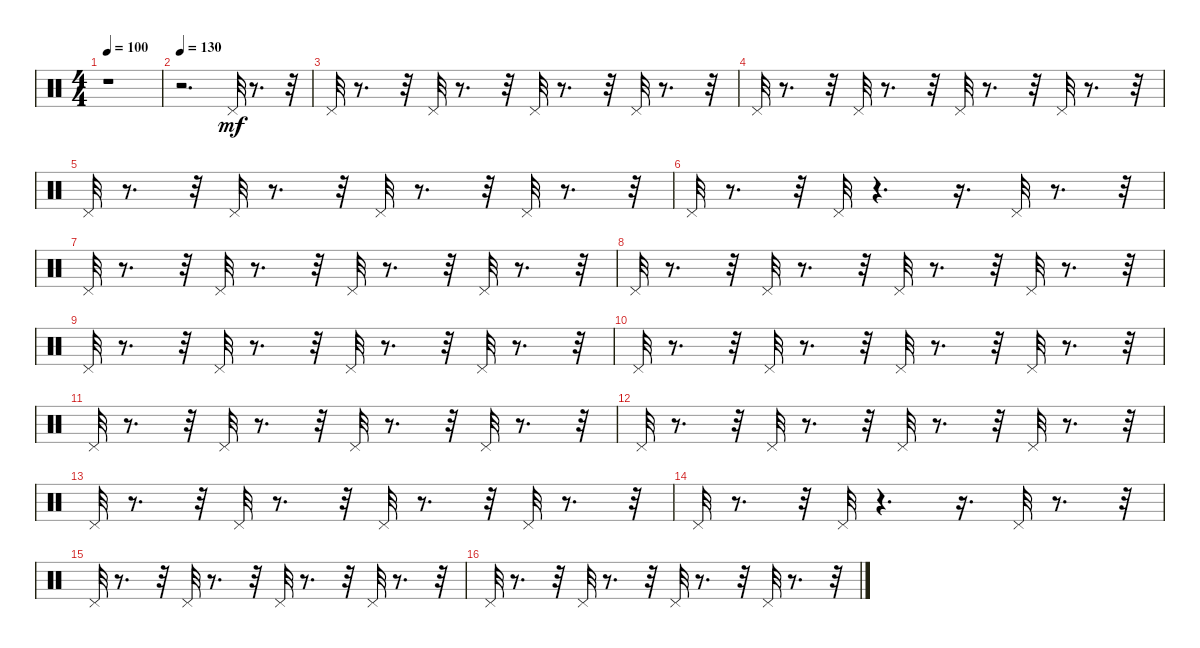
\track "" {instrument percussion}
\staff {score}
\articulation defaults
\ts (4 4)
\tempo 100
\clef neutral
\ks c
r.1{dy mf} |
\tempo 130
r.2{d} "Pedal Hi-Hat (hit)".32 r.8{d} r.32 |
"Pedal Hi-Hat (hit)".32 r.8{d} r.32 "Pedal Hi-Hat (hit)".32 r.8{d} r.32 "Pedal Hi-Hat (hit)".32 r.8{d} r.32 "Pedal Hi-Hat (hit)".32 r.8{d} r.32 |
"Pedal Hi-Hat (hit)".32 r.8{d} r.32 "Pedal Hi-Hat (hit)".32 r.8{d} r.32 "Pedal Hi-Hat (hit)".32 r.8{d} r.32 "Pedal Hi-Hat (hit)".32 r.8{d} r.32 |
"Pedal Hi-Hat (hit)".32 r.8{d} r.32 "Pedal Hi-Hat (hit)".32 r.8{d} r.32 "Pedal Hi-Hat (hit)".32 r.8{d} r.32 "Pedal Hi-Hat (hit)".32 r.8{d} r.32 |
"Pedal Hi-Hat (hit)".32 r.8{d} r.32 "Pedal Hi-Hat (hit)".32 r.4{d} r.16{d} "Pedal Hi-Hat (hit)".32 r.8{d} r.32 |
"Pedal Hi-Hat (hit)".32 r.8{d} r.32 "Pedal Hi-Hat (hit)".32 r.8{d} r.32 "Pedal Hi-Hat (hit)".32 r.8{d} r.32 "Pedal Hi-Hat (hit)".32 r.8{d} r.32 |
"Pedal Hi-Hat (hit)".32 r.8{d} r.32 "Pedal Hi-Hat (hit)".32 r.8{d} r.32 "Pedal Hi-Hat (hit)".32 r.8{d} r.32 "Pedal Hi-Hat (hit)".32 r.8{d} r.32 |
"Pedal Hi-Hat (hit)".32 r.8{d} r.32 "Pedal Hi-Hat (hit)".32 r.8{d} r.32 "Pedal Hi-Hat (hit)".32 r.8{d} r.32 "Pedal Hi-Hat (hit)".32 r.8{d} r.32 |
"Pedal Hi-Hat (hit)".32 r.8{d} r.32 "Pedal Hi-Hat (hit)".32 r.8{d} r.32 "Pedal Hi-Hat (hit)".32 r.8{d} r.32 "Pedal Hi-Hat (hit)".32 r.8{d} r.32 |
"Pedal Hi-Hat (hit)".32 r.8{d} r.32 "Pedal Hi-Hat (hit)".32 r.8{d} r.32 "Pedal Hi-Hat (hit)".32 r.8{d} r.32 "Pedal Hi-Hat (hit)".32 r.8{d} r.32 |
"Pedal Hi-Hat (hit)".32 r.8{d} r.32 "Pedal Hi-Hat (hit)".32 r.8{d} r.32 "Pedal Hi-Hat (hit)".32 r.8{d} r.32 "Pedal Hi-Hat (hit)".32 r.8{d} r.32 |
"Pedal Hi-Hat (hit)".32 r.8{d} r.32 "Pedal Hi-Hat (hit)".32 r.8{d} r.32 "Pedal Hi-Hat (hit)".32 r.8{d} r.32 "Pedal Hi-Hat (hit)".32 r.8{d} r.32 |
"Pedal Hi-Hat (hit)".32 r.8{d} r.32 "Pedal Hi-Hat (hit)".32 r.4{d} r.16{d} "Pedal Hi-Hat (hit)".32 r.8{d} r.32 |
"Pedal Hi-Hat (hit)".32 r.8{d} r.32 "Pedal Hi-Hat (hit)".32 r.8{d} r.32 "Pedal Hi-Hat (hit)".32 r.8{d} r.32 "Pedal Hi-Hat (hit)".32 r.8{d} r.32 |
"Pedal Hi-Hat (hit)".32 r.8{d} r.32 "Pedal Hi-Hat (hit)".32 r.8{d} r.32 "Pedal Hi-Hat (hit)".32 r.8{d} r.32 "Pedal Hi-Hat (hit)".32 r.8{d} r.32
